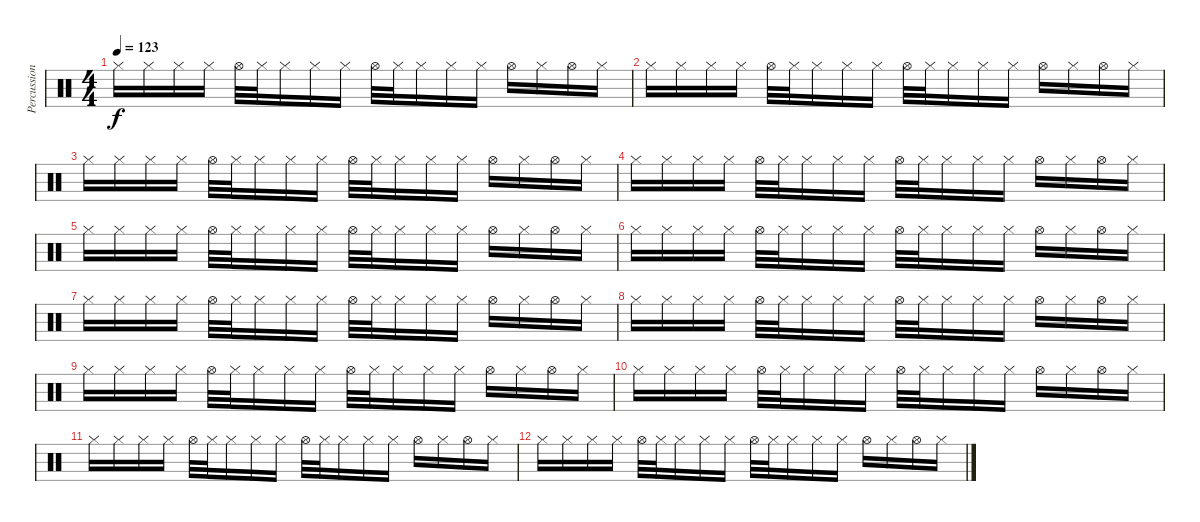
\track ("Percussion" "Percussion") {instrument percussion}
\staff {score}
\articulation defaults
\ts (4 4)
\tempo 123
\clef neutral
\ks c "Hi-Hat (closed)".16{dy f} "Hi-Hat (closed)".16 "Hi-Hat (closed)".16 "Hi-Hat (closed)".16 "Hi-Hat (open)".32 "Hi-Hat (closed)".32 "Hi-Hat (closed)".16 "Hi-Hat (closed)".16 "Hi-Hat (closed)".16 "Hi-Hat (open)".32 "Hi-Hat (closed)".32 "Hi-Hat (closed)".16 "Hi-Hat (closed)".16 "Hi-Hat (closed)".16 "Hi-Hat (open)".16 "Hi-Hat (closed)".16 "Hi-Hat (open)".16 "Hi-Hat (closed)".16
|
"Hi-Hat (closed)".16 "Hi-Hat (closed)".16 "Hi-Hat (closed)".16 "Hi-Hat (closed)".16 "Hi-Hat (open)".32 "Hi-Hat (closed)".32 "Hi-Hat (closed)".16 "Hi-Hat (closed)".16 "Hi-Hat (closed)".16 "Hi-Hat (open)".32 "Hi-Hat (closed)".32 "Hi-Hat (closed)".16 "Hi-Hat (closed)".16 "Hi-Hat (closed)".16 "Hi-Hat (open)".16 "Hi-Hat (closed)".16 "Hi-Hat (open)".16 "Hi-Hat (closed)".16 |
"Hi-Hat (closed)".16 "Hi-Hat (closed)".16 "Hi-Hat (closed)".16 "Hi-Hat (closed)".16 "Hi-Hat (open)".32 "Hi-Hat (closed)".32 "Hi-Hat (closed)".16 "Hi-Hat (closed)".16 "Hi-Hat (closed)".16 "Hi-Hat (open)".32 "Hi-Hat (closed)".32 "Hi-Hat (closed)".16 "Hi-Hat (closed)".16 "Hi-Hat (closed)".16 "Hi-Hat (open)".16 "Hi-Hat (closed)".16 "Hi-Hat (open)".16 "Hi-Hat (closed)".16 |
"Hi-Hat (closed)".16 "Hi-Hat (closed)".16 "Hi-Hat (closed)".16 "Hi-Hat (closed)".16 "Hi-Hat (open)".32 "Hi-Hat (closed)".32 "Hi-Hat (closed)".16 "Hi-Hat (closed)".16 "Hi-Hat (closed)".16 "Hi-Hat (open)".32 "Hi-Hat (closed)".32 "Hi-Hat (closed)".16 "Hi-Hat (closed)".16 "Hi-Hat (closed)".16 "Hi-Hat (open)".16 "Hi-Hat (closed)".16 "Hi-Hat (open)".16 "Hi-Hat (closed)".16 |
"Hi-Hat (closed)".16 "Hi-Hat (closed)".16 "Hi-Hat (closed)".16 "Hi-Hat (closed)".16 "Hi-Hat (open)".32 "Hi-Hat (closed)".32 "Hi-Hat (closed)".16 "Hi-Hat (closed)".16 "Hi-Hat (closed)".16 "Hi-Hat (open)".32 "Hi-Hat (closed)".32 "Hi-Hat (closed)".16 "Hi-Hat (closed)".16 "Hi-Hat (closed)".16 "Hi-Hat (open)".16 "Hi-Hat (closed)".16 "Hi-Hat (open)".16 "Hi-Hat (closed)".16 |
"Hi-Hat (closed)".16 "Hi-Hat (closed)".16 "Hi-Hat (closed)".16 "Hi-Hat (closed)".16 "Hi-Hat (open)".32 "Hi-Hat (closed)".32 "Hi-Hat (closed)".16 "Hi-Hat (closed)".16 "Hi-Hat (closed)".16 "Hi-Hat (open)".32 "Hi-Hat (closed)".32 "Hi-Hat (closed)".16 "Hi-Hat (closed)".16 "Hi-Hat (closed)".16 "Hi-Hat (open)".16 "Hi-Hat (closed)".16 "Hi-Hat (open)".16 "Hi-Hat (closed)".16 |
"Hi-Hat (closed)".16 "Hi-Hat (closed)".16 "Hi-Hat (closed)".16 "Hi-Hat (closed)".16 "Hi-Hat (open)".32 "Hi-Hat (closed)".32 "Hi-Hat (closed)".16 "Hi-Hat (closed)".16 "Hi-Hat (closed)".16 "Hi-Hat (open)".32 "Hi-Hat (closed)".32 "Hi-Hat (closed)".16 "Hi-Hat (closed)".16 "Hi-Hat (closed)".16 "Hi-Hat (open)".16 "Hi-Hat (closed)".16 "Hi-Hat (open)".16 "Hi-Hat (closed)".16 |
"Hi-Hat (closed)".16 "Hi-Hat (closed)".16 "Hi-Hat (closed)".16 "Hi-Hat (closed)".16 "Hi-Hat (open)".32 "Hi-Hat (closed)".32 "Hi-Hat (closed)".16 "Hi-Hat (closed)".16 "Hi-Hat (closed)".16 "Hi-Hat (open)".32 "Hi-Hat (closed)".32 "Hi-Hat (closed)".16 "Hi-Hat (closed)".16 "Hi-Hat (closed)".16 "Hi-Hat (open)".16 "Hi-Hat (closed)".16 "Hi-Hat (open)".16 "Hi-Hat (closed)".16 |
"Hi-Hat (closed)".16 "Hi-Hat (closed)".16 "Hi-Hat (closed)".16 "Hi-Hat (closed)".16 "Hi-Hat (open)".32 "Hi-Hat (closed)".32 "Hi-Hat (closed)".16 "Hi-Hat (closed)".16 "Hi-Hat (closed)".16 "Hi-Hat (open)".32 "Hi-Hat (closed)".32 "Hi-Hat (closed)".16 "Hi-Hat (closed)".16 "Hi-Hat (closed)".16 "Hi-Hat (open)".16 "Hi-Hat (closed)".16 "Hi-Hat (open)".16 "Hi-Hat (closed)".16 |
"Hi-Hat (closed)".16 "Hi-Hat (closed)".16 "Hi-Hat (closed)".16 "Hi-Hat (closed)".16 "Hi-Hat (open)".32 "Hi-Hat (closed)".32 "Hi-Hat (closed)".16 "Hi-Hat (closed)".16 "Hi-Hat (closed)".16 "Hi-Hat (open)".32 "Hi-Hat (closed)".32 "Hi-Hat (closed)".16 "Hi-Hat (closed)".16 "Hi-Hat (closed)".16 "Hi-Hat (open)".16 "Hi-Hat (closed)".16 "Hi-Hat (open)".16 "Hi-Hat (closed)".16 |
"Hi-Hat (closed)".16 "Hi-Hat (closed)".16 "Hi-Hat (closed)".16 "Hi-Hat (closed)".16 "Hi-Hat (open)".32 "Hi-Hat (closed)".32 "Hi-Hat (closed)".16 "Hi-Hat (closed)".16 "Hi-Hat (closed)".16 "Hi-Hat (open)".32 "Hi-Hat (closed)".32 "Hi-Hat (closed)".16 "Hi-Hat (closed)".16 "Hi-Hat (closed)".16 "Hi-Hat (open)".16 "Hi-Hat (closed)".16 "Hi-Hat (open)".16 "Hi-Hat (closed)".16 |
"Hi-Hat (closed)".16 "Hi-Hat (closed)".16 "Hi-Hat (closed)".16 "Hi-Hat (closed)".16 "Hi-Hat (open)".32 "Hi-Hat (closed)".32 "Hi-Hat (closed)".16 "Hi-Hat (closed)".16 "Hi-Hat (closed)".16 "Hi-Hat (open)".32 "Hi-Hat (closed)".32 "Hi-Hat (closed)".16 "Hi-Hat (closed)".16 "Hi-Hat (closed)".16 "Hi-Hat (open)".16 "Hi-Hat (closed)".16 "Hi-Hat (open)".16 "Hi-Hat (closed)".16
